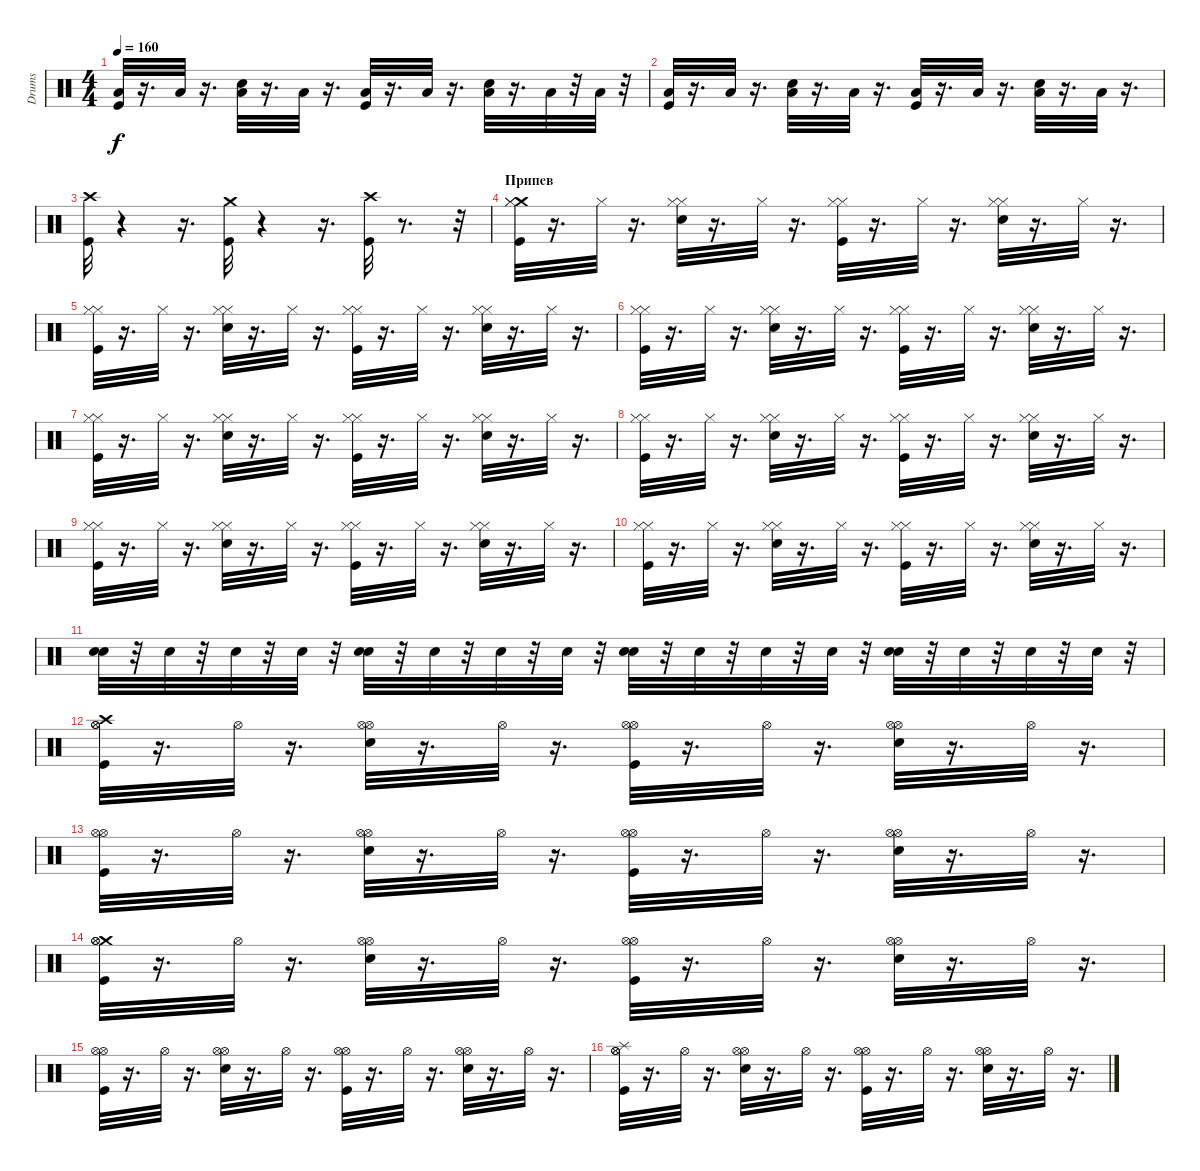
\track ("Drums" "Drums") {instrument percussion}
\staff {score}
\articulation defaults
\ts (4 4)
\tempo 160
\clef neutral
\ks c
("Kick (hit)" "Low Floor Tom (hit)").32{dy f} r.16{d} "Low Floor Tom (hit)".32 r.16{d} ("Low Floor Tom (hit)" "Snare (hit) 2").32 r.16{d} "Low Floor Tom (hit)".32 r.16{d} ("Kick (hit)" "Low Floor Tom (hit)").32 r.16{d} "Low Floor Tom (hit)".32 r.16{d} ("Low Floor Tom (hit)" "Snare (hit) 2").32 r.16{d} "Low Floor Tom (hit)".32 r.32 "Low Floor Tom (hit)".32 r.32 |
("Kick (hit)" "Low Floor Tom (hit)").32 r.16{d} "Low Floor Tom (hit)".32 r.16{d} ("Low Floor Tom (hit)" "Snare (hit) 2").32 r.16{d} "Low Floor Tom (hit)".32 r.16{d} ("Low Floor Tom (hit)" "Kick (hit)").32 r.16{d} "Low Floor Tom (hit)".32 r.16{d} ("Snare (hit) 2" "Low Floor Tom (hit)").32 r.16{d} "Low Floor Tom (hit)".32 r.16{d} |
("Crash high (hit)" "Kick (hit)").32 r.4 r.16{d} ("Kick (hit)" "Crash medium (hit)").32 r.4 r.16{d} ("Crash high (hit)" "Kick (hit)").32 r.8{d} r.32 |
\section ("" "Припев")
("Crash medium (hit)" "Hi-Hat (closed)" "Hi-Hat (closed)" "Kick (hit)").32 r.16{d} "Hi-Hat (closed)".32 r.16{d} ("Hi-Hat (closed)" "Hi-Hat (closed)" "Snare (hit) 2").32 r.16{d} "Hi-Hat (closed)".32 r.16{d} ("Hi-Hat (closed)" "Hi-Hat (closed)" "Kick (hit)").32 r.16{d} "Hi-Hat (closed)".32 r.16{d} ("Hi-Hat (closed)" "Hi-Hat (closed)" "Snare (hit) 2").32 r.16{d} "Hi-Hat (closed)".32 r.16{d} |
("Hi-Hat (closed)" "Hi-Hat (closed)" "Kick (hit)").32 r.16{d} "Hi-Hat (closed)".32 r.16{d} ("Hi-Hat (closed)" "Hi-Hat (closed)" "Snare (hit) 2").32 r.16{d} "Hi-Hat (closed)".32 r.16{d} ("Hi-Hat (closed)" "Hi-Hat (closed)" "Kick (hit)").32 r.16{d} "Hi-Hat (closed)".32 r.16{d} ("Hi-Hat (closed)" "Hi-Hat (closed)" "Snare (hit) 2").32 r.16{d} "Hi-Hat (closed)".32 r.16{d} |
("Hi-Hat (closed)" "Hi-Hat (closed)" "Kick (hit)").32 r.16{d} "Hi-Hat (closed)".32 r.16{d} ("Hi-Hat (closed)" "Hi-Hat (closed)" "Snare (hit) 2").32 r.16{d} "Hi-Hat (closed)".32 r.16{d} ("Hi-Hat (closed)" "Hi-Hat (closed)" "Kick (hit)").32 r.16{d} "Hi-Hat (closed)".32 r.16{d} ("Hi-Hat (closed)" "Hi-Hat (closed)" "Snare (hit) 2").32 r.16{d} "Hi-Hat (closed)".32 r.16{d} |
("Hi-Hat (closed)" "Hi-Hat (closed)" "Kick (hit)").32 r.16{d} "Hi-Hat (closed)".32 r.16{d} ("Hi-Hat (closed)" "Hi-Hat (closed)" "Snare (hit) 2").32 r.16{d} "Hi-Hat (closed)".32 r.16{d} ("Hi-Hat (closed)" "Hi-Hat (closed)" "Kick (hit)").32 r.16{d} "Hi-Hat (closed)".32 r.16{d} ("Hi-Hat (closed)" "Hi-Hat (closed)" "Snare (hit) 2").32 r.16{d} "Hi-Hat (closed)".32 r.16{d} |
("Hi-Hat (closed)" "Hi-Hat (closed)" "Kick (hit)").32 r.16{d} "Hi-Hat (closed)".32 r.16{d} ("Hi-Hat (closed)" "Hi-Hat (closed)" "Snare (hit) 2").32 r.16{d} "Hi-Hat (closed)".32 r.16{d} ("Hi-Hat (closed)" "Hi-Hat (closed)" "Kick (hit)").32 r.16{d} "Hi-Hat (closed)".32 r.16{d} ("Hi-Hat (closed)" "Hi-Hat (closed)" "Snare (hit) 2").32 r.16{d} "Hi-Hat (closed)".32 r.16{d} |
("Hi-Hat (closed)" "Hi-Hat (closed)" "Kick (hit)").32 r.16{d} "Hi-Hat (closed)".32 r.16{d} ("Hi-Hat (closed)" "Hi-Hat (closed)" "Snare (hit) 2").32 r.16{d} "Hi-Hat (closed)".32 r.16{d} ("Hi-Hat (closed)" "Hi-Hat (closed)" "Kick (hit)").32 r.16{d} "Hi-Hat (closed)".32 r.16{d} ("Hi-Hat (closed)" "Hi-Hat (closed)" "Snare (hit) 2").32 r.16{d} "Hi-Hat (closed)".32 r.16{d} |
("Hi-Hat (closed)" "Hi-Hat (closed)" "Kick (hit)").32 r.16{d} "Hi-Hat (closed)".32 r.16{d} ("Hi-Hat (closed)" "Hi-Hat (closed)" "Snare (hit) 2").32 r.16{d} "Hi-Hat (closed)".32 r.16{d} ("Hi-Hat (closed)" "Hi-Hat (closed)" "Kick (hit)").32 r.16{d} "Hi-Hat (closed)".32 r.16{d} ("Hi-Hat (closed)" "Hi-Hat (closed)" "Snare (hit) 2").32 r.16{d} "Hi-Hat (closed)".32 r.16{d} |
("Snare (hit) 2" "Snare (hit) 2").32 r.32 "Snare (hit) 2".32 r.32 "Snare (hit) 2".32 r.32 "Snare (hit) 2".32 r.32 ("Snare (hit) 2" "Snare (hit) 2").32 r.32 "Snare (hit) 2".32 r.32 "Snare (hit) 2".32 r.32 "Snare (hit) 2".32 r.32 ("Snare (hit) 2" "Snare (hit) 2").32 r.32 "Snare (hit) 2".32 r.32 "Snare (hit) 2".32 r.32 "Snare (hit) 2".32 r.32 ("Snare (hit) 2" "Snare (hit) 2").32 r.32 "Snare (hit) 2".32 r.32 "Snare (hit) 2".32 r.32 "Snare (hit) 2".32 r.32 |
("Crash high (hit)" "Kick (hit)" "Hi-Hat (open)" "Hi-Hat (open)").32 r.16{d} "Hi-Hat (open)".32 r.16{d} ("Hi-Hat (open)" "Snare (hit) 2" "Hi-Hat (open)").32 r.16{d} "Hi-Hat (open)".32 r.16{d} ("Hi-Hat (open)" "Kick (hit)" "Hi-Hat (open)").32 r.16{d} "Hi-Hat (open)".32 r.16{d} ("Hi-Hat (open)" "Hi-Hat (open)" "Snare (hit) 2").32 r.16{d} "Hi-Hat (open)".32 r.16{d} |
("Hi-Hat (open)" "Hi-Hat (open)" "Kick (hit)").32 r.16{d} "Hi-Hat (open)".32 r.16{d} ("Snare (hit) 2" "Hi-Hat (open)" "Hi-Hat (open)").32 r.16{d} "Hi-Hat (open)".32 r.16{d} ("Kick (hit)" "Hi-Hat (open)" "Hi-Hat (open)").32 r.16{d} "Hi-Hat (open)".32 r.16{d} ("Hi-Hat (open)" "Hi-Hat (open)" "Snare (hit) 2").32 r.16{d} "Hi-Hat (open)".32 r.16{d} |
("Crash medium (hit)" "Hi-Hat (open)" "Kick (hit)" "Hi-Hat (open)").32 r.16{d} "Hi-Hat (open)".32 r.16{d} ("Hi-Hat (open)" "Snare (hit) 2" "Hi-Hat (open)").32 r.16{d} "Hi-Hat (open)".32 r.16{d} ("Kick (hit)" "Hi-Hat (open)" "Hi-Hat (open)").32 r.16{d} "Hi-Hat (open)".32 r.16{d} ("Hi-Hat (open)" "Hi-Hat (open)" "Snare (hit) 2").32 r.16{d} "Hi-Hat (open)".32 r.16{d} |
("Kick (hit)" "Hi-Hat (open)" "Hi-Hat (open)").32 r.16{d} "Hi-Hat (open)".32 r.16{d} ("Snare (hit) 2" "Hi-Hat (open)" "Hi-Hat (open)").32 r.16{d} "Hi-Hat (open)".32 r.16{d} ("Kick (hit)" "Hi-Hat (open)" "Hi-Hat (open)").32 r.16{d} "Hi-Hat (open)".32 r.16{d} ("Hi-Hat (open)" "Snare (hit) 2" "Hi-Hat (open)").32 r.16{d} "Hi-Hat (open)".32 r.16{d} |
("Splash (hit)" "Hi-Hat (open)" "Kick (hit)" "Hi-Hat (open)").32 r.16{d} "Hi-Hat (open)".32 r.16{d} ("Hi-Hat (open)" "Hi-Hat (open)" "Snare (hit) 2").32 r.16{d} "Hi-Hat (open)".32 r.16{d} ("Hi-Hat (open)" "Hi-Hat (open)" "Kick (hit)").32 r.16{d} "Hi-Hat (open)".32 r.16{d} ("Snare (hit) 2" "Hi-Hat (open)" "Hi-Hat (open)").32 r.16{d} "Hi-Hat (open)".32 r.16{d}
